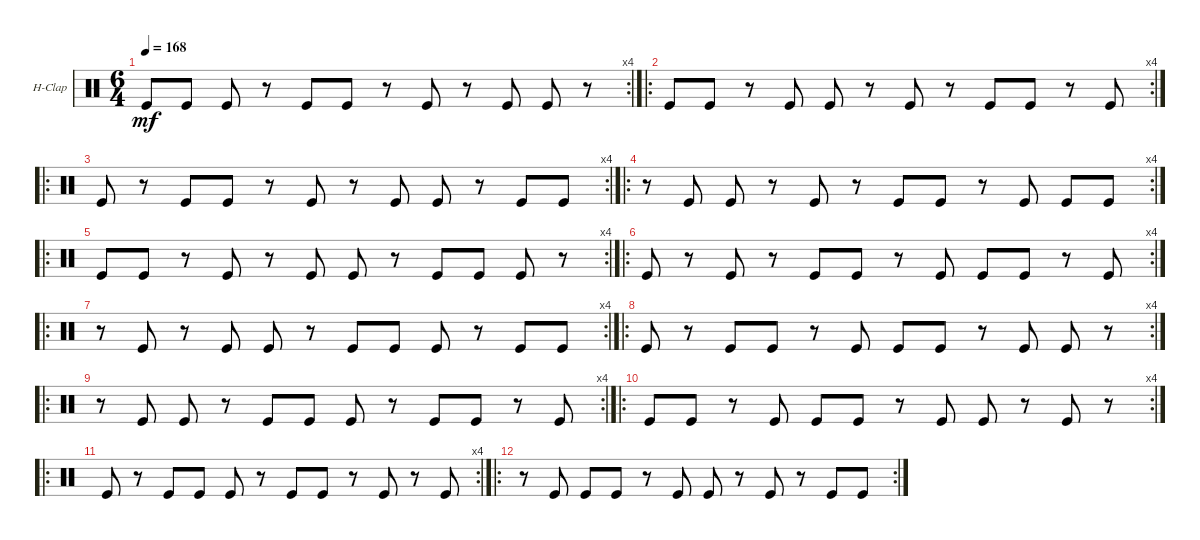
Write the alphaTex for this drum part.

\defaultSystemsLayout 4
\bracketExtendMode groupsimilarinstruments
\firstSystemTrackNameOrientation horizontal
\otherSystemsTrackNameOrientation horizontal
\track ("Hand Clap" "H-Clap") {instrument percussion}
\staff {score}
\articulation defaults
\rc 4
\ts (6 4)
\tempo 168
\clef neutral
\ks c "Kick (hit)".8{dy mf} "Kick (hit)".8 "Kick (hit)".8
r.8 "Kick (hit)".8 "Kick (hit)".8 r.8 "Kick (hit)".8 r.8 "Kick (hit)".8 "Kick (hit)".8 r.8 |
\ro
\rc 4 "Kick (hit)".8 "Kick (hit)".8
r.8 "Kick (hit)".8 "Kick (hit)".8 r.8 "Kick (hit)".8 r.8 "Kick (hit)".8 "Kick (hit)".8 r.8 "Kick (hit)".8 |
\ro
\rc 4 "Kick (hit)".8
r.8 "Kick (hit)".8 "Kick (hit)".8 r.8 "Kick (hit)".8 r.8 "Kick (hit)".8 "Kick (hit)".8 r.8 "Kick (hit)".8 "Kick (hit)".8 |
\ro
\rc 4
r.8 "Kick (hit)".8 "Kick (hit)".8 r.8 "Kick (hit)".8 r.8 "Kick (hit)".8 "Kick (hit)".8 r.8 "Kick (hit)".8 "Kick (hit)".8 "Kick (hit)".8 |
\ro
\rc 4 "Kick (hit)".8 "Kick (hit)".8
r.8 "Kick (hit)".8 r.8 "Kick (hit)".8 "Kick (hit)".8 r.8 "Kick (hit)".8 "Kick (hit)".8 "Kick (hit)".8 r.8 |
\ro
\rc 4 "Kick (hit)".8
r.8 "Kick (hit)".8 r.8 "Kick (hit)".8 "Kick (hit)".8 r.8 "Kick (hit)".8 "Kick (hit)".8 "Kick (hit)".8 r.8 "Kick (hit)".8 |
\ro
\rc 4
r.8 "Kick (hit)".8 r.8 "Kick (hit)".8 "Kick (hit)".8 r.8 "Kick (hit)".8 "Kick (hit)".8 "Kick (hit)".8 r.8 "Kick (hit)".8 "Kick (hit)".8 |
\ro
\rc 4 "Kick (hit)".8
r.8 "Kick (hit)".8 "Kick (hit)".8 r.8 "Kick (hit)".8 "Kick (hit)".8 "Kick (hit)".8 r.8 "Kick (hit)".8 "Kick (hit)".8 r.8 |
\ro
\rc 4
r.8 "Kick (hit)".8 "Kick (hit)".8 r.8 "Kick (hit)".8 "Kick (hit)".8 "Kick (hit)".8 r.8 "Kick (hit)".8 "Kick (hit)".8 r.8 "Kick (hit)".8 |
\ro
\rc 4 "Kick (hit)".8 "Kick (hit)".8
r.8 "Kick (hit)".8 "Kick (hit)".8 "Kick (hit)".8 r.8 "Kick (hit)".8 "Kick (hit)".8 r.8 "Kick (hit)".8 r.8 |
\ro
\rc 4 "Kick (hit)".8
r.8 "Kick (hit)".8 "Kick (hit)".8 "Kick (hit)".8 r.8 "Kick (hit)".8 "Kick (hit)".8 r.8 "Kick (hit)".8 r.8 "Kick (hit)".8 |
\ro
\rc 2
r.8 "Kick (hit)".8 "Kick (hit)".8 "Kick (hit)".8 r.8 "Kick (hit)".8 "Kick (hit)".8 r.8 "Kick (hit)".8 r.8 "Kick (hit)".8 "Kick (hit)".8
